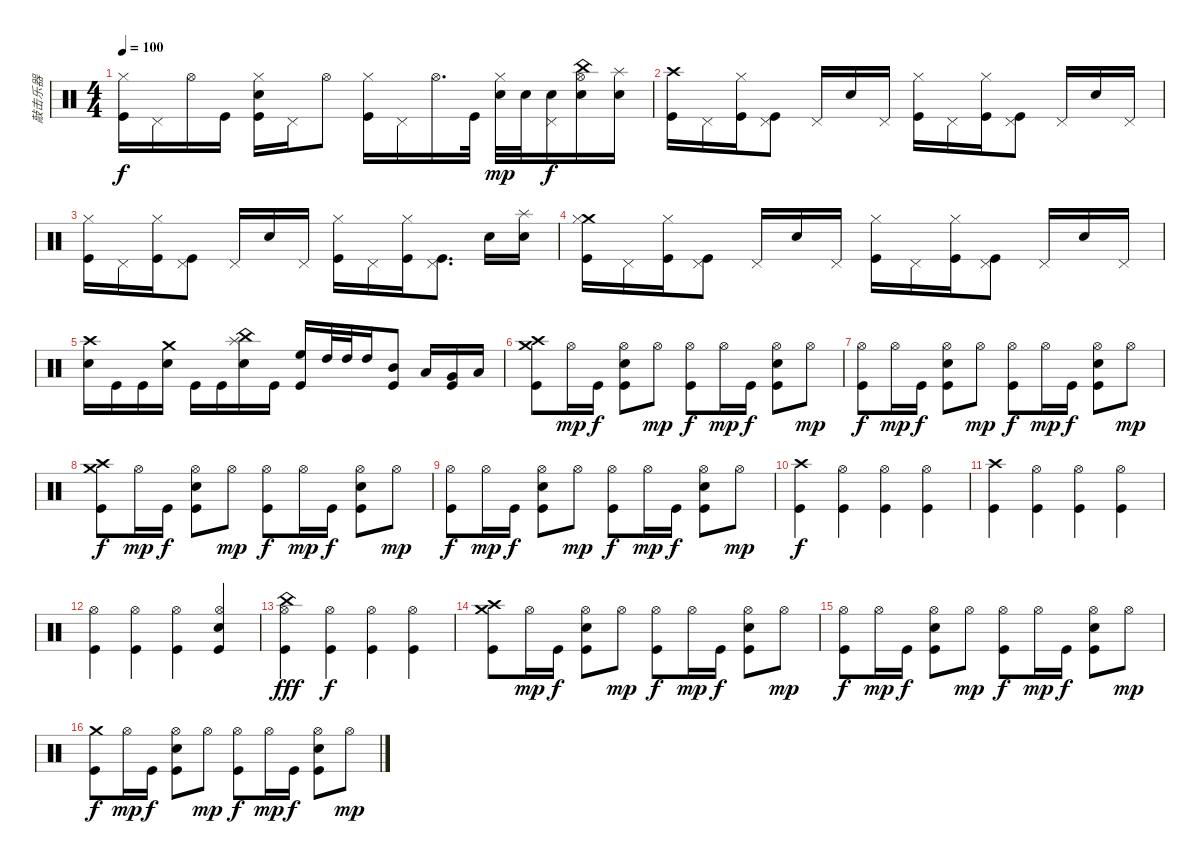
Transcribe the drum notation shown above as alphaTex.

\track ("敲击乐器" "敲击乐器") {instrument percussion}
\staff {score}
\articulation defaults
\ts (4 4)
\tempo 100
\clef neutral
\ks c
("Hi-Hat (closed)" "Kick (hit)").16{dy f} "Pedal Hi-Hat (hit)".16 "Hi-Hat (open)".16 "Kick (hit)".16 ("Hi-Hat (closed)" "Snare (hit) 2" "Kick (hit)").16 "Pedal Hi-Hat (hit)".16 "Hi-Hat (open)".8 ("Hi-Hat (closed)" "Kick (hit)").16 "Pedal Hi-Hat (hit)".16 "Hi-Hat (open)".16{d} "Kick (hit)".32 ("Hi-Hat (closed)" "Snare (hit) 2").32{dy mp} "Snare (hit) 2".32 ("Pedal Hi-Hat (hit)" "Snare (hit) 2").16{dy f} ("Hi-Hat (open)" "China (hit)" "Snare (hit) 2").16 ("Splash (hit)" "Snare (hit) 2").16 |
("Kick (hit)" "Crash high (hit)").16 "Pedal Hi-Hat (hit)".16 ("Hi-Hat (closed)" "Kick (hit)").16 ("Pedal Hi-Hat (hit)" "Kick (hit)").8 "Pedal Hi-Hat (hit)".16 "Snare (hit) 2".16 "Pedal Hi-Hat (hit)".16 ("Hi-Hat (closed)" "Kick (hit)").16 "Pedal Hi-Hat (hit)".16 ("Hi-Hat (closed)" "Kick (hit)").16 ("Pedal Hi-Hat (hit)" "Kick (hit)").8 "Pedal Hi-Hat (hit)".16 "Snare (hit) 2".16 "Pedal Hi-Hat (hit)".16 |
("Hi-Hat (closed)" "Kick (hit)").16 "Pedal Hi-Hat (hit)".16 ("Hi-Hat (closed)" "Kick (hit)").16 ("Kick (hit)" "Pedal Hi-Hat (hit)").8 "Pedal Hi-Hat (hit)".16 "Snare (hit) 2".16 "Pedal Hi-Hat (hit)".16 ("Hi-Hat (closed)" "Kick (hit)").16 "Pedal Hi-Hat (hit)".16 ("Hi-Hat (closed)" "Kick (hit)").16 ("Pedal Hi-Hat (hit)" "Kick (hit)").8{d} "Snare (hit) 2".16 ("Splash (hit)" "Snare (hit) 2").16 |
("Crash medium (hit)" "Hi-Hat (closed)" "Kick (hit)").16 "Pedal Hi-Hat (hit)".16 ("Kick (hit)" "Hi-Hat (closed)").16 ("Pedal Hi-Hat (hit)" "Kick (hit)").8 "Pedal Hi-Hat (hit)".16 "Snare (hit) 2".16 "Pedal Hi-Hat (hit)".16 ("Hi-Hat (closed)" "Kick (hit)").16 "Pedal Hi-Hat (hit)".16 ("Hi-Hat (closed)" "Kick (hit)").16 ("Pedal Hi-Hat (hit)" "Kick (hit)").8 "Pedal Hi-Hat (hit)".16 "Snare (hit) 2".16 "Pedal Hi-Hat (hit)".16 |
("Crash high (hit)" "Snare (hit) 2").16 "Kick (hit)".16 "Kick (hit)".16 ("Snare (hit) 2" "Crash medium (hit)").16 "Kick (hit)".16 "Kick (hit)".16 ("Splash (hit)" "China (hit)" "Snare (hit) 2").16 "Kick (hit)".16 ("High Floor Tom (hit)" "Kick (hit)").16 "High Tom (hit)".32 "High Tom (hit)".32 "High Tom (hit)".16 ("Mid Tom (hit)" "Kick (hit)").8 "Low Tom (hit)".16 ("Very Low Tom (hit)" "Kick (hit)").16 "Low Floor Tom (hit)".16 |
("Kick (hit)" "Crash medium (hit)" "Crash high (hit)").8 "Hi-Hat (open)".16{dy mp} "Kick (hit)".16{dy f} ("Snare (hit) 2" "Kick (hit)" "Hi-Hat (open)").8 "Hi-Hat (open)".8{dy mp} ("Kick (hit)" "Hi-Hat (open)").8{dy f} "Hi-Hat (open)".16{dy mp} "Kick (hit)".16{dy f} ("Snare (hit) 2" "Kick (hit)" "Hi-Hat (open)").8 "Hi-Hat (open)".8{dy mp} |
("Hi-Hat (open)" "Kick (hit)").8{dy f} "Hi-Hat (open)".16{dy mp} "Kick (hit)".16{dy f} ("Hi-Hat (open)" "Snare (hit) 2" "Kick (hit)").8 "Hi-Hat (open)".8{dy mp} ("Hi-Hat (open)" "Kick (hit)").8{dy f} "Hi-Hat (open)".16{dy mp} "Kick (hit)".16{dy f} ("Hi-Hat (open)" "Snare (hit) 2" "Kick (hit)").8 "Hi-Hat (open)".8{dy mp} |
("Kick (hit)" "Crash medium (hit)" "Crash high (hit)").8{dy f} "Hi-Hat (open)".16{dy mp} "Kick (hit)".16{dy f} ("Snare (hit) 2" "Kick (hit)" "Hi-Hat (open)").8 "Hi-Hat (open)".8{dy mp} ("Kick (hit)" "Hi-Hat (open)").8{dy f} "Hi-Hat (open)".16{dy mp} "Kick (hit)".16{dy f} ("Snare (hit) 2" "Kick (hit)" "Hi-Hat (open)").8 "Hi-Hat (open)".8{dy mp} |
("Hi-Hat (open)" "Kick (hit)").8{dy f} "Hi-Hat (open)".16{dy mp} "Kick (hit)".16{dy f} ("Hi-Hat (open)" "Snare (hit) 2" "Kick (hit)").8 "Hi-Hat (open)".8{dy mp} ("Hi-Hat (open)" "Kick (hit)").8{dy f} "Hi-Hat (open)".16{dy mp} "Kick (hit)".16{dy f} ("Hi-Hat (open)" "Snare (hit) 2" "Kick (hit)").8 "Hi-Hat (open)".8{dy mp} |
("Kick (hit)" "Crash high (hit)").4{dy f} ("Hi-Hat (open)" "Kick (hit)").4 ("Hi-Hat (open)" "Kick (hit)").4 ("Hi-Hat (open)" "Kick (hit)").4 |
("Kick (hit)" "Crash high (hit)").4 ("Hi-Hat (open)" "Kick (hit)").4 ("Hi-Hat (open)" "Kick (hit)").4 ("Hi-Hat (open)" "Kick (hit)").4 |
("Hi-Hat (open)" "Kick (hit)").4 ("Hi-Hat (open)" "Kick (hit)").4 ("Hi-Hat (open)" "Kick (hit)").4 ("Snare (hit) 2" "Kick (hit)" "Hi-Hat (open)").4 |
("Kick (hit)" "Hi-Hat (open)" "China (hit)").4{dy fff} ("Kick (hit)" "Hi-Hat (open)").4{dy f} ("Hi-Hat (open)" "Kick (hit)").4 ("Hi-Hat (open)" "Kick (hit)").4 |
("Kick (hit)" "Crash medium (hit)" "Crash high (hit)").8 "Hi-Hat (open)".16{dy mp} "Kick (hit)".16{dy f} ("Snare (hit) 2" "Kick (hit)" "Hi-Hat (open)").8 "Hi-Hat (open)".8{dy mp} ("Kick (hit)" "Hi-Hat (open)").8{dy f} "Hi-Hat (open)".16{dy mp} "Kick (hit)".16{dy f} ("Snare (hit) 2" "Kick (hit)" "Hi-Hat (open)").8 "Hi-Hat (open)".8{dy mp} |
("Hi-Hat (open)" "Kick (hit)").8{dy f} "Hi-Hat (open)".16{dy mp} "Kick (hit)".16{dy f} ("Hi-Hat (open)" "Snare (hit) 2" "Kick (hit)").8 "Hi-Hat (open)".8{dy mp} ("Hi-Hat (open)" "Kick (hit)").8{dy f} "Hi-Hat (open)".16{dy mp} "Kick (hit)".16{dy f} ("Hi-Hat (open)" "Snare (hit) 2" "Kick (hit)").8 "Hi-Hat (open)".8{dy mp} |
("Crash medium (hit)" "Kick (hit)").8{dy f} "Hi-Hat (open)".16{dy mp} "Kick (hit)".16{dy f} ("Snare (hit) 2" "Kick (hit)" "Hi-Hat (open)").8 "Hi-Hat (open)".8{dy mp} ("Kick (hit)" "Hi-Hat (open)").8{dy f} "Hi-Hat (open)".16{dy mp} "Kick (hit)".16{dy f} ("Snare (hit) 2" "Kick (hit)" "Hi-Hat (open)").8 "Hi-Hat (open)".8{dy mp}
